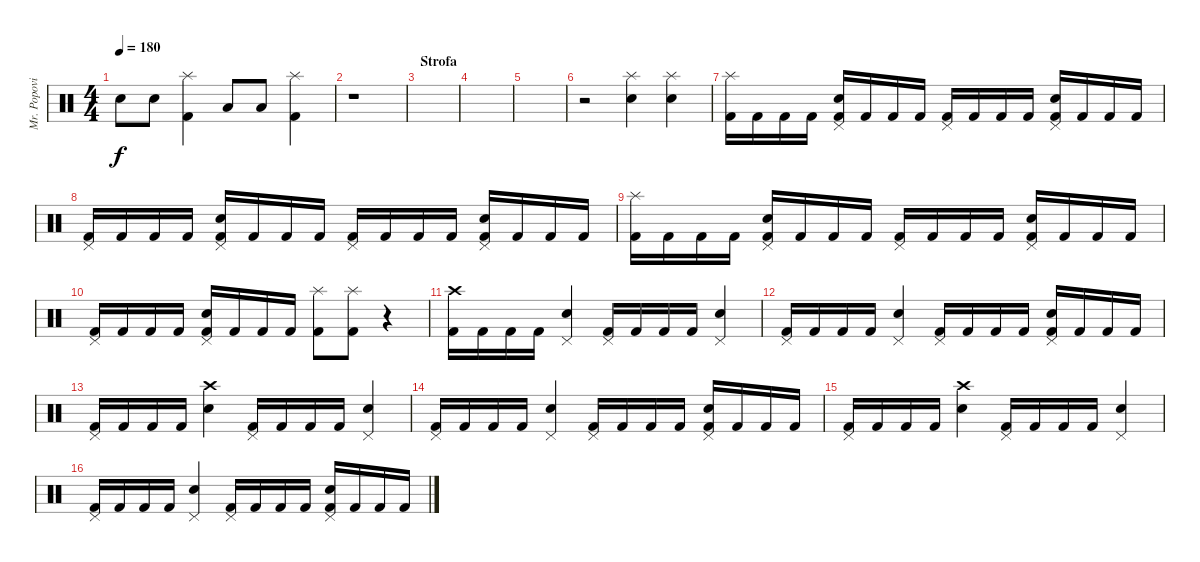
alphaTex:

\track ("Mr. Popovic" "Mr. Popovi") {instrument percussion}
\staff {score}
\articulation defaults
\ts (4 4)
\tempo 180
\clef neutral
\ks c "Electric Snare (hit)".8{dy f} "Electric Snare (hit)".8
("Splash (hit)" "Kick (hit) 2").4 "Low Tom (hit)".8 "Low Tom (hit)".8 ("Splash (hit)" "Kick (hit) 2").4 |
r.1 |
\section ("" "Strofa")
|
|
|
r.2 ("Splash (hit)" "Electric Snare (hit)").4 ("Splash (hit)" "Electric Snare (hit)").4 |
("Splash (hit)" "Kick (hit) 2").16 "Kick (hit) 2".16 "Kick (hit) 2".16 "Kick (hit) 2".16 ("Pedal Hi-Hat (hit)" "Electric Snare (hit)" "Kick (hit) 2").16 "Kick (hit) 2".16 "Kick (hit) 2".16 "Kick (hit) 2".16 ("Pedal Hi-Hat (hit)" "Kick (hit) 2").16 "Kick (hit) 2".16 "Kick (hit) 2".16 "Kick (hit) 2".16 ("Pedal Hi-Hat (hit)" "Electric Snare (hit)" "Kick (hit) 2").16 "Kick (hit) 2".16 "Kick (hit) 2".16 "Kick (hit) 2".16 |
("Pedal Hi-Hat (hit)" "Kick (hit) 2").16 "Kick (hit) 2".16 "Kick (hit) 2".16 "Kick (hit) 2".16 ("Pedal Hi-Hat (hit)" "Electric Snare (hit)" "Kick (hit) 2").16 "Kick (hit) 2".16 "Kick (hit) 2".16 "Kick (hit) 2".16 ("Pedal Hi-Hat (hit)" "Kick (hit) 2").16 "Kick (hit) 2".16 "Kick (hit) 2".16 "Kick (hit) 2".16 ("Pedal Hi-Hat (hit)" "Electric Snare (hit)" "Kick (hit) 2").16 "Kick (hit) 2".16 "Kick (hit) 2".16 "Kick (hit) 2".16 |
("Splash (hit)" "Kick (hit) 2").16 "Kick (hit) 2".16 "Kick (hit) 2".16 "Kick (hit) 2".16 ("Pedal Hi-Hat (hit)" "Electric Snare (hit)" "Kick (hit) 2").16 "Kick (hit) 2".16 "Kick (hit) 2".16 "Kick (hit) 2".16 ("Pedal Hi-Hat (hit)" "Kick (hit) 2").16 "Kick (hit) 2".16 "Kick (hit) 2".16 "Kick (hit) 2".16 ("Pedal Hi-Hat (hit)" "Electric Snare (hit)" "Kick (hit) 2").16 "Kick (hit) 2".16 "Kick (hit) 2".16 "Kick (hit) 2".16 |
("Pedal Hi-Hat (hit)" "Kick (hit) 2").16 "Kick (hit) 2".16 "Kick (hit) 2".16 "Kick (hit) 2".16 ("Pedal Hi-Hat (hit)" "Electric Snare (hit)" "Kick (hit) 2").16 "Kick (hit) 2".16 "Kick (hit) 2".16 "Kick (hit) 2".16 ("Splash (hit)" "Kick (hit) 2").8 ("Splash (hit)" "Kick (hit) 2").8 r.4 |
("Crash high (hit)" "Kick (hit) 2").16 "Kick (hit) 2".16 "Kick (hit) 2".16 "Kick (hit) 2".16 ("Pedal Hi-Hat (hit)" "Electric Snare (hit)").4 ("Pedal Hi-Hat (hit)" "Kick (hit) 2").16 "Kick (hit) 2".16 "Kick (hit) 2".16 "Kick (hit) 2".16 ("Pedal Hi-Hat (hit)" "Electric Snare (hit)").4 |
("Pedal Hi-Hat (hit)" "Kick (hit) 2").16 "Kick (hit) 2".16 "Kick (hit) 2".16 "Kick (hit) 2".16 ("Pedal Hi-Hat (hit)" "Electric Snare (hit)").4 ("Pedal Hi-Hat (hit)" "Kick (hit) 2").16 "Kick (hit) 2".16 "Kick (hit) 2".16 "Kick (hit) 2".16 ("Pedal Hi-Hat (hit)" "Electric Snare (hit)" "Kick (hit) 2").16 "Kick (hit) 2".16 "Kick (hit) 2".16 "Kick (hit) 2".16 |
("Pedal Hi-Hat (hit)" "Kick (hit) 2").16 "Kick (hit) 2".16 "Kick (hit) 2".16 "Kick (hit) 2".16 ("Crash high (hit)" "Electric Snare (hit)").4 ("Pedal Hi-Hat (hit)" "Kick (hit) 2").16 "Kick (hit) 2".16 "Kick (hit) 2".16 "Kick (hit) 2".16 ("Pedal Hi-Hat (hit)" "Electric Snare (hit)").4 |
("Pedal Hi-Hat (hit)" "Kick (hit) 2").16 "Kick (hit) 2".16 "Kick (hit) 2".16 "Kick (hit) 2".16 ("Pedal Hi-Hat (hit)" "Electric Snare (hit)").4 ("Pedal Hi-Hat (hit)" "Kick (hit) 2").16 "Kick (hit) 2".16 "Kick (hit) 2".16 "Kick (hit) 2".16 ("Pedal Hi-Hat (hit)" "Electric Snare (hit)" "Kick (hit) 2").16 "Kick (hit) 2".16 "Kick (hit) 2".16 "Kick (hit) 2".16 |
("Pedal Hi-Hat (hit)" "Kick (hit) 2").16 "Kick (hit) 2".16 "Kick (hit) 2".16 "Kick (hit) 2".16 ("Crash high (hit)" "Electric Snare (hit)").4 ("Pedal Hi-Hat (hit)" "Kick (hit) 2").16 "Kick (hit) 2".16 "Kick (hit) 2".16 "Kick (hit) 2".16 ("Pedal Hi-Hat (hit)" "Electric Snare (hit)").4 |
("Pedal Hi-Hat (hit)" "Kick (hit) 2").16 "Kick (hit) 2".16 "Kick (hit) 2".16 "Kick (hit) 2".16 ("Pedal Hi-Hat (hit)" "Electric Snare (hit)").4 ("Pedal Hi-Hat (hit)" "Kick (hit) 2").16 "Kick (hit) 2".16 "Kick (hit) 2".16 "Kick (hit) 2".16 ("Pedal Hi-Hat (hit)" "Electric Snare (hit)" "Kick (hit) 2").16 "Kick (hit) 2".16 "Kick (hit) 2".16 "Kick (hit) 2".16
